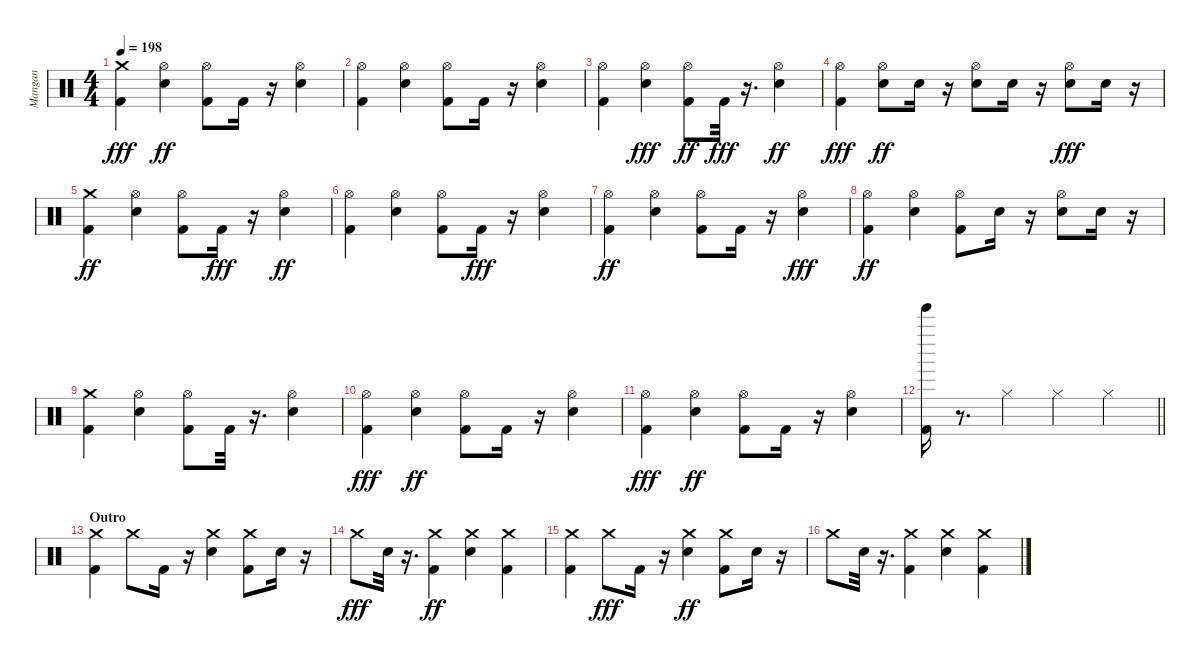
\track ("Mangan" "Mangan") {instrument percussion}
\staff {score}
\articulation defaults
\ts (4 4)
\tempo 198
\clef neutral
\ks c
("Kick (hit) 2" "Crash medium (hit)").4{dy fff} ("Snare (hit) 2" "Hi-Hat (open)").4{dy ff} ("Kick (hit) 2" "Hi-Hat (open)").8 "Kick (hit) 2".16 r.16 ("Snare (hit) 2" "Hi-Hat (open)").4 |
("Kick (hit) 2" "Hi-Hat (open)").4 ("Snare (hit) 2" "Hi-Hat (open)").4 ("Kick (hit) 2" "Hi-Hat (open)").8 "Kick (hit) 2".16 r.16 ("Snare (hit) 2" "Hi-Hat (open)").4 |
("Kick (hit) 2" "Hi-Hat (open)").4 ("Snare (hit) 2" "Hi-Hat (open)").4{dy fff} ("Kick (hit) 2" "Hi-Hat (open)").8{dy ff} "Kick (hit) 2".32{dy fff} r.16{d} ("Snare (hit) 2" "Hi-Hat (open)").4{dy ff} |
("Kick (hit) 2" "Hi-Hat (open)").4{dy fff} ("Snare (hit) 2" "Hi-Hat (open)").8{dy ff} "Snare (hit) 2".16 r.16 ("Snare (hit) 2" "Hi-Hat (open)").8 "Snare (hit) 2".16 r.16 ("Snare (hit) 2" "Hi-Hat (open)").8{dy fff} "Snare (hit) 2".16 r.16 |
("Kick (hit) 2" "Crash medium (hit)").4{dy ff} ("Snare (hit) 2" "Hi-Hat (open)").4 ("Kick (hit) 2" "Hi-Hat (open)").8 "Kick (hit) 2".16{dy fff} r.16 ("Snare (hit) 2" "Hi-Hat (open)").4{dy ff} |
("Kick (hit) 2" "Hi-Hat (open)").4 ("Snare (hit) 2" "Hi-Hat (open)").4 ("Kick (hit) 2" "Hi-Hat (open)").8 "Kick (hit) 2".16{dy fff} r.16 ("Snare (hit) 2" "Hi-Hat (open)").4 |
("Kick (hit) 2" "Hi-Hat (open)").4{dy ff} ("Snare (hit) 2" "Hi-Hat (open)").4 ("Kick (hit) 2" "Hi-Hat (open)").8 "Kick (hit) 2".16 r.16 ("Snare (hit) 2" "Hi-Hat (open)").4{dy fff} |
("Kick (hit) 2" "Hi-Hat (open)").4{dy ff} ("Snare (hit) 2" "Hi-Hat (open)").4 ("Kick (hit) 2" "Hi-Hat (open)").8 "Snare (hit) 2".16 r.16 ("Snare (hit) 2" "Hi-Hat (open)").8 "Snare (hit) 2".16 r.16 |
("Kick (hit) 2" "Crash medium (hit)").4 ("Snare (hit) 2" "Hi-Hat (open)").4 ("Kick (hit) 2" "Hi-Hat (open)").8 "Kick (hit) 2".32 r.16{d} ("Snare (hit) 2" "Hi-Hat (open)").4 |
("Kick (hit) 2" "Hi-Hat (open)").4{dy fff} ("Snare (hit) 2" "Hi-Hat (open)").4{dy ff} ("Kick (hit) 2" "Hi-Hat (open)").8 "Kick (hit) 2".16 r.16 ("Snare (hit) 2" "Hi-Hat (open)").4 |
("Kick (hit) 2" "Hi-Hat (open)").4{dy fff} ("Snare (hit) 2" "Hi-Hat (open)").4{dy ff} ("Kick (hit) 2" "Hi-Hat (open)").8 "Kick (hit) 2".16 r.16 ("Snare (hit) 2" "Hi-Hat (open)").4 |
\barLineRight lightlight
("Kick (hit) 2" "Tinkle Bell (hit)").16 r.8{d} "Hi-Hat (closed)".4 "Hi-Hat (closed)".4 "Hi-Hat (closed)".4 |
\section ("" "Outro")
("Kick (hit) 2" "Crash medium (hit)").4 "Crash medium (hit)".8 "Kick (hit) 2".16 r.16 ("Snare (hit) 2" "Crash medium (hit)").4 ("Kick (hit) 2" "Crash medium (hit)").8 "Snare (hit) 2".16 r.16 |
"Crash medium (hit)".8{dy fff} "Snare (hit) 2".32 r.16{d} ("Kick (hit) 2" "Crash medium (hit)").4{dy ff} ("Snare (hit) 2" "Crash medium (hit)").4 ("Kick (hit) 2" "Crash medium (hit)").4 |
("Kick (hit) 2" "Crash medium (hit)").4 "Crash medium (hit)".8{dy fff} "Kick (hit) 2".16 r.16 ("Snare (hit) 2" "Crash medium (hit)").4{dy ff} ("Kick (hit) 2" "Crash medium (hit)").8 "Snare (hit) 2".16 r.16 |
"Crash medium (hit)".8 "Snare (hit) 2".32 r.16{d} ("Kick (hit) 2" "Crash medium (hit)").4 ("Snare (hit) 2" "Crash medium (hit)").4 ("Kick (hit) 2" "Crash medium (hit)").4
